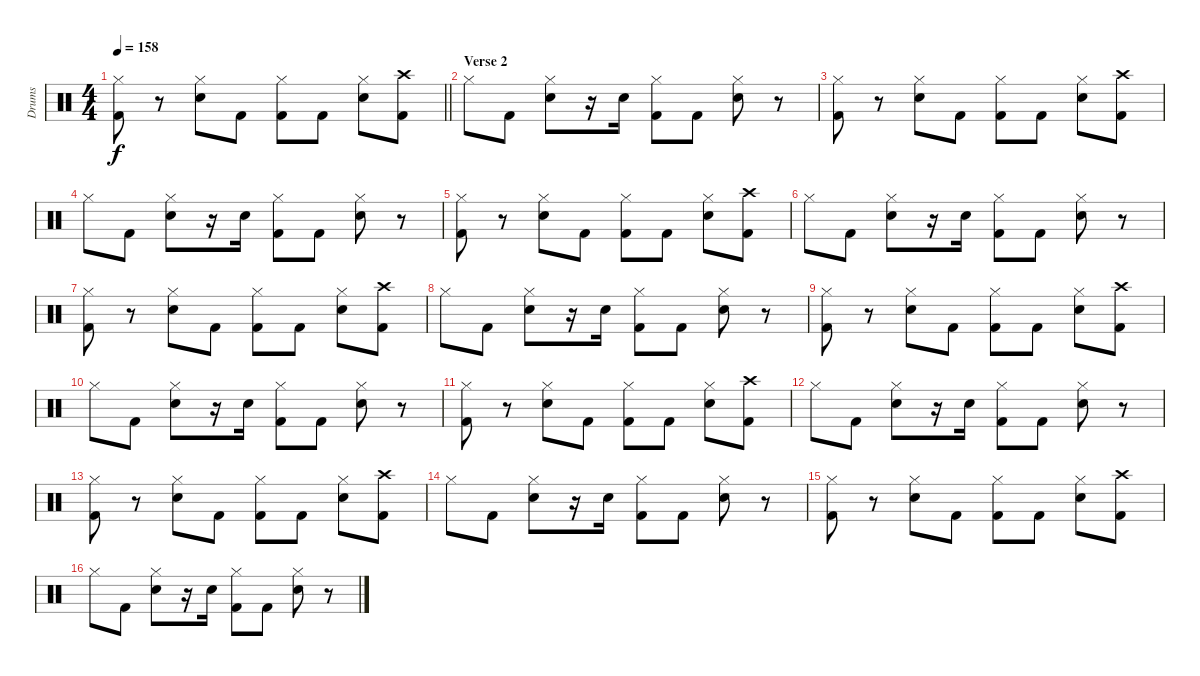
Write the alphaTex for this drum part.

\track ("Drums" "Drums") {instrument percussion}
\staff {score}
\articulation defaults
\ts (4 4)
\tempo 158
\clef neutral
\barLineRight lightlight
\ks c
("Hi-Hat (closed)" "Kick (hit) 2").8{dy f} r.8 ("Hi-Hat (closed)" "Snare (hit) 2").8 "Kick (hit) 2".8 ("Hi-Hat (closed)" "Kick (hit) 2").8 "Kick (hit) 2".8 ("Hi-Hat (closed)" "Snare (hit) 2").8 ("Crash high (hit)" "Kick (hit) 2").8 |
\section ("" "Verse 2")
"Hi-Hat (closed)".8 "Kick (hit) 2".8 ("Hi-Hat (closed)" "Snare (hit) 2").8 r.16 "Snare (hit) 2".16 ("Hi-Hat (closed)" "Kick (hit) 2").8 "Kick (hit) 2".8 ("Hi-Hat (closed)" "Snare (hit) 2").8 r.8 |
("Hi-Hat (closed)" "Kick (hit) 2").8 r.8 ("Hi-Hat (closed)" "Snare (hit) 2").8 "Kick (hit) 2".8 ("Hi-Hat (closed)" "Kick (hit) 2").8 "Kick (hit) 2".8 ("Hi-Hat (closed)" "Snare (hit) 2").8 ("Crash high (hit)" "Kick (hit) 2").8 |
"Hi-Hat (closed)".8 "Kick (hit) 2".8 ("Hi-Hat (closed)" "Snare (hit) 2").8 r.16 "Snare (hit) 2".16 ("Hi-Hat (closed)" "Kick (hit) 2").8 "Kick (hit) 2".8 ("Hi-Hat (closed)" "Snare (hit) 2").8 r.8 |
("Hi-Hat (closed)" "Kick (hit) 2").8 r.8 ("Hi-Hat (closed)" "Snare (hit) 2").8 "Kick (hit) 2".8 ("Hi-Hat (closed)" "Kick (hit) 2").8 "Kick (hit) 2".8 ("Hi-Hat (closed)" "Snare (hit) 2").8 ("Crash high (hit)" "Kick (hit) 2").8 |
"Hi-Hat (closed)".8 "Kick (hit) 2".8 ("Hi-Hat (closed)" "Snare (hit) 2").8 r.16 "Snare (hit) 2".16 ("Hi-Hat (closed)" "Kick (hit) 2").8 "Kick (hit) 2".8 ("Hi-Hat (closed)" "Snare (hit) 2").8 r.8 |
("Hi-Hat (closed)" "Kick (hit) 2").8 r.8 ("Hi-Hat (closed)" "Snare (hit) 2").8 "Kick (hit) 2".8 ("Hi-Hat (closed)" "Kick (hit) 2").8 "Kick (hit) 2".8 ("Hi-Hat (closed)" "Snare (hit) 2").8 ("Crash high (hit)" "Kick (hit) 2").8 |
"Hi-Hat (closed)".8 "Kick (hit) 2".8 ("Hi-Hat (closed)" "Snare (hit) 2").8 r.16 "Snare (hit) 2".16 ("Hi-Hat (closed)" "Kick (hit) 2").8 "Kick (hit) 2".8 ("Hi-Hat (closed)" "Snare (hit) 2").8 r.8 |
("Hi-Hat (closed)" "Kick (hit) 2").8 r.8 ("Hi-Hat (closed)" "Snare (hit) 2").8 "Kick (hit) 2".8 ("Hi-Hat (closed)" "Kick (hit) 2").8 "Kick (hit) 2".8 ("Hi-Hat (closed)" "Snare (hit) 2").8 ("Crash high (hit)" "Kick (hit) 2").8 |
"Hi-Hat (closed)".8 "Kick (hit) 2".8 ("Hi-Hat (closed)" "Snare (hit) 2").8 r.16 "Snare (hit) 2".16 ("Hi-Hat (closed)" "Kick (hit) 2").8 "Kick (hit) 2".8 ("Hi-Hat (closed)" "Snare (hit) 2").8 r.8 |
("Hi-Hat (closed)" "Kick (hit) 2").8 r.8 ("Hi-Hat (closed)" "Snare (hit) 2").8 "Kick (hit) 2".8 ("Hi-Hat (closed)" "Kick (hit) 2").8 "Kick (hit) 2".8 ("Hi-Hat (closed)" "Snare (hit) 2").8 ("Crash high (hit)" "Kick (hit) 2").8 |
"Hi-Hat (closed)".8 "Kick (hit) 2".8 ("Hi-Hat (closed)" "Snare (hit) 2").8 r.16 "Snare (hit) 2".16 ("Hi-Hat (closed)" "Kick (hit) 2").8 "Kick (hit) 2".8 ("Hi-Hat (closed)" "Snare (hit) 2").8 r.8 |
("Hi-Hat (closed)" "Kick (hit) 2").8 r.8 ("Hi-Hat (closed)" "Snare (hit) 2").8 "Kick (hit) 2".8 ("Hi-Hat (closed)" "Kick (hit) 2").8 "Kick (hit) 2".8 ("Hi-Hat (closed)" "Snare (hit) 2").8 ("Crash high (hit)" "Kick (hit) 2").8 |
"Hi-Hat (closed)".8 "Kick (hit) 2".8 ("Hi-Hat (closed)" "Snare (hit) 2").8 r.16 "Snare (hit) 2".16 ("Hi-Hat (closed)" "Kick (hit) 2").8 "Kick (hit) 2".8 ("Hi-Hat (closed)" "Snare (hit) 2").8 r.8 |
("Hi-Hat (closed)" "Kick (hit) 2").8 r.8 ("Hi-Hat (closed)" "Snare (hit) 2").8 "Kick (hit) 2".8 ("Hi-Hat (closed)" "Kick (hit) 2").8 "Kick (hit) 2".8 ("Hi-Hat (closed)" "Snare (hit) 2").8 ("Crash high (hit)" "Kick (hit) 2").8 |
"Hi-Hat (closed)".8 "Kick (hit) 2".8 ("Hi-Hat (closed)" "Snare (hit) 2").8 r.16 "Snare (hit) 2".16 ("Hi-Hat (closed)" "Kick (hit) 2").8 "Kick (hit) 2".8 ("Hi-Hat (closed)" "Snare (hit) 2").8 r.8
